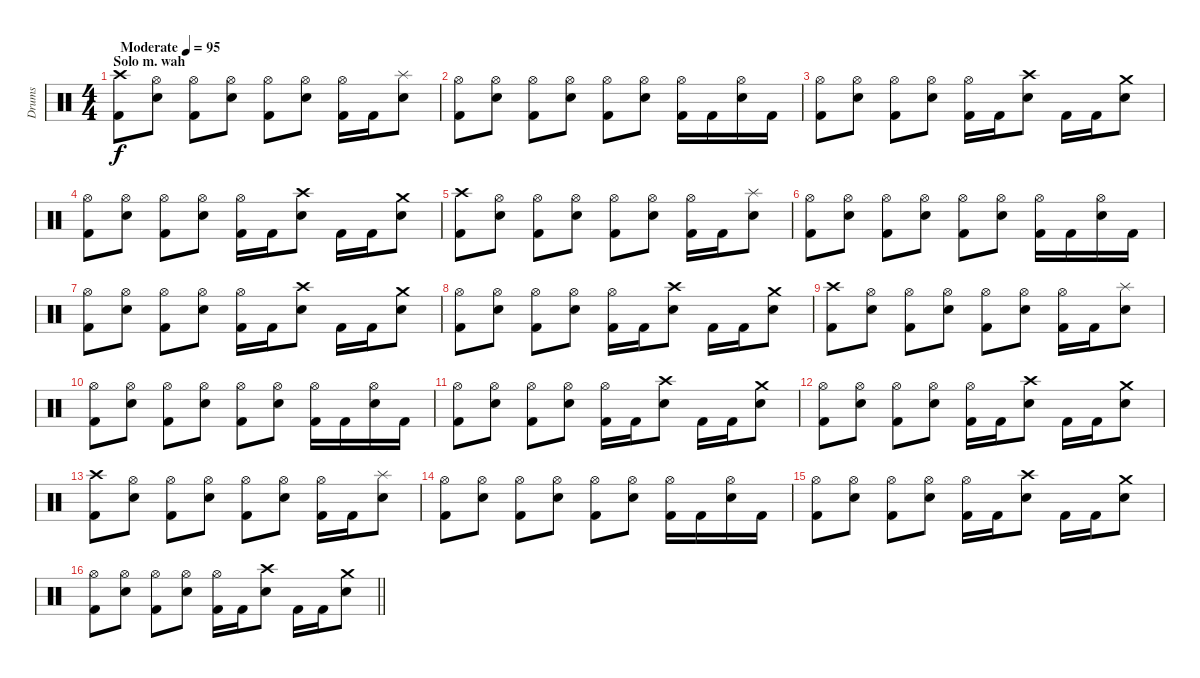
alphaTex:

\track ("Drums" "Drums") {instrument percussion}
\staff {score}
\articulation defaults
\ts (4 4)
\section ("" "Solo m. wah")
\tempo (95 "Moderate")
\clef neutral
\ks c
("Crash high (hit)" "Kick (hit) 2").8{dy f} ("Hi-Hat (open)" "Snare (hit) 2").8 ("Hi-Hat (open)" "Kick (hit) 2").8 ("Hi-Hat (open)" "Snare (hit) 2").8 ("Hi-Hat (open)" "Kick (hit) 2").8 ("Hi-Hat (open)" "Snare (hit) 2").8 ("Hi-Hat (open)" "Kick (hit) 2").16 "Kick (hit) 2".16 ("Splash (hit)" "Snare (hit) 2").8 |
("Hi-Hat (open)" "Kick (hit) 2").8 ("Hi-Hat (open)" "Snare (hit) 2").8 ("Hi-Hat (open)" "Kick (hit) 2").8 ("Hi-Hat (open)" "Snare (hit) 2").8 ("Hi-Hat (open)" "Kick (hit) 2").8 ("Hi-Hat (open)" "Snare (hit) 2").8 ("Hi-Hat (open)" "Kick (hit) 2").16 "Kick (hit) 2".16 ("Hi-Hat (open)" "Snare (hit) 2").16 "Kick (hit) 2".16 |
("Hi-Hat (open)" "Kick (hit) 2").8 ("Hi-Hat (open)" "Snare (hit) 2").8 ("Hi-Hat (open)" "Kick (hit) 2").8 ("Hi-Hat (open)" "Snare (hit) 2").8 ("Hi-Hat (open)" "Kick (hit) 2").16 "Kick (hit) 2".16 ("Crash high (hit)" "Snare (hit) 2").8 "Kick (hit) 2".16 "Kick (hit) 2".16 ("Crash medium (hit)" "Snare (hit) 2").8 |
("Hi-Hat (open)" "Kick (hit) 2").8 ("Hi-Hat (open)" "Snare (hit) 2").8 ("Hi-Hat (open)" "Kick (hit) 2").8 ("Hi-Hat (open)" "Snare (hit) 2").8 ("Hi-Hat (open)" "Kick (hit) 2").16 "Kick (hit) 2".16 ("Crash high (hit)" "Snare (hit) 2").8 "Kick (hit) 2".16 "Kick (hit) 2".16 ("Crash medium (hit)" "Snare (hit) 2").8 |
("Crash high (hit)" "Kick (hit) 2").8 ("Hi-Hat (open)" "Snare (hit) 2").8 ("Hi-Hat (open)" "Kick (hit) 2").8 ("Hi-Hat (open)" "Snare (hit) 2").8 ("Hi-Hat (open)" "Kick (hit) 2").8 ("Hi-Hat (open)" "Snare (hit) 2").8 ("Hi-Hat (open)" "Kick (hit) 2").16 "Kick (hit) 2".16 ("Splash (hit)" "Snare (hit) 2").8 |
("Hi-Hat (open)" "Kick (hit) 2").8 ("Hi-Hat (open)" "Snare (hit) 2").8 ("Hi-Hat (open)" "Kick (hit) 2").8 ("Hi-Hat (open)" "Snare (hit) 2").8 ("Hi-Hat (open)" "Kick (hit) 2").8 ("Hi-Hat (open)" "Snare (hit) 2").8 ("Hi-Hat (open)" "Kick (hit) 2").16 "Kick (hit) 2".16 ("Hi-Hat (open)" "Snare (hit) 2").16 "Kick (hit) 2".16 |
("Hi-Hat (open)" "Kick (hit) 2").8 ("Hi-Hat (open)" "Snare (hit) 2").8 ("Hi-Hat (open)" "Kick (hit) 2").8 ("Hi-Hat (open)" "Snare (hit) 2").8 ("Hi-Hat (open)" "Kick (hit) 2").16 "Kick (hit) 2".16 ("Crash high (hit)" "Snare (hit) 2").8 "Kick (hit) 2".16 "Kick (hit) 2".16 ("Crash medium (hit)" "Snare (hit) 2").8 |
("Hi-Hat (open)" "Kick (hit) 2").8 ("Hi-Hat (open)" "Snare (hit) 2").8 ("Hi-Hat (open)" "Kick (hit) 2").8 ("Hi-Hat (open)" "Snare (hit) 2").8 ("Hi-Hat (open)" "Kick (hit) 2").16 "Kick (hit) 2".16 ("Crash high (hit)" "Snare (hit) 2").8 "Kick (hit) 2".16 "Kick (hit) 2".16 ("Crash medium (hit)" "Snare (hit) 2").8 |
("Crash high (hit)" "Kick (hit) 2").8 ("Hi-Hat (open)" "Snare (hit) 2").8 ("Hi-Hat (open)" "Kick (hit) 2").8 ("Hi-Hat (open)" "Snare (hit) 2").8 ("Hi-Hat (open)" "Kick (hit) 2").8 ("Hi-Hat (open)" "Snare (hit) 2").8 ("Hi-Hat (open)" "Kick (hit) 2").16 "Kick (hit) 2".16 ("Splash (hit)" "Snare (hit) 2").8 |
("Hi-Hat (open)" "Kick (hit) 2").8 ("Hi-Hat (open)" "Snare (hit) 2").8 ("Hi-Hat (open)" "Kick (hit) 2").8 ("Hi-Hat (open)" "Snare (hit) 2").8 ("Hi-Hat (open)" "Kick (hit) 2").8 ("Hi-Hat (open)" "Snare (hit) 2").8 ("Hi-Hat (open)" "Kick (hit) 2").16 "Kick (hit) 2".16 ("Hi-Hat (open)" "Snare (hit) 2").16 "Kick (hit) 2".16 |
("Hi-Hat (open)" "Kick (hit) 2").8 ("Hi-Hat (open)" "Snare (hit) 2").8 ("Hi-Hat (open)" "Kick (hit) 2").8 ("Hi-Hat (open)" "Snare (hit) 2").8 ("Hi-Hat (open)" "Kick (hit) 2").16 "Kick (hit) 2".16 ("Crash high (hit)" "Snare (hit) 2").8 "Kick (hit) 2".16 "Kick (hit) 2".16 ("Crash medium (hit)" "Snare (hit) 2").8 |
("Hi-Hat (open)" "Kick (hit) 2").8 ("Hi-Hat (open)" "Snare (hit) 2").8 ("Hi-Hat (open)" "Kick (hit) 2").8 ("Hi-Hat (open)" "Snare (hit) 2").8 ("Hi-Hat (open)" "Kick (hit) 2").16 "Kick (hit) 2".16 ("Crash high (hit)" "Snare (hit) 2").8 "Kick (hit) 2".16 "Kick (hit) 2".16 ("Crash medium (hit)" "Snare (hit) 2").8 |
("Crash high (hit)" "Kick (hit) 2").8 ("Hi-Hat (open)" "Snare (hit) 2").8 ("Hi-Hat (open)" "Kick (hit) 2").8 ("Hi-Hat (open)" "Snare (hit) 2").8 ("Hi-Hat (open)" "Kick (hit) 2").8 ("Hi-Hat (open)" "Snare (hit) 2").8 ("Hi-Hat (open)" "Kick (hit) 2").16 "Kick (hit) 2".16 ("Splash (hit)" "Snare (hit) 2").8 |
("Hi-Hat (open)" "Kick (hit) 2").8 ("Hi-Hat (open)" "Snare (hit) 2").8 ("Hi-Hat (open)" "Kick (hit) 2").8 ("Hi-Hat (open)" "Snare (hit) 2").8 ("Hi-Hat (open)" "Kick (hit) 2").8 ("Hi-Hat (open)" "Snare (hit) 2").8 ("Hi-Hat (open)" "Kick (hit) 2").16 "Kick (hit) 2".16 ("Hi-Hat (open)" "Snare (hit) 2").16 "Kick (hit) 2".16 |
("Hi-Hat (open)" "Kick (hit) 2").8 ("Hi-Hat (open)" "Snare (hit) 2").8 ("Hi-Hat (open)" "Kick (hit) 2").8 ("Hi-Hat (open)" "Snare (hit) 2").8 ("Hi-Hat (open)" "Kick (hit) 2").16 "Kick (hit) 2".16 ("Crash high (hit)" "Snare (hit) 2").8 "Kick (hit) 2".16 "Kick (hit) 2".16 ("Crash medium (hit)" "Snare (hit) 2").8 |
\barLineRight lightlight
("Hi-Hat (open)" "Kick (hit) 2").8 ("Hi-Hat (open)" "Snare (hit) 2").8 ("Hi-Hat (open)" "Kick (hit) 2").8 ("Hi-Hat (open)" "Snare (hit) 2").8 ("Hi-Hat (open)" "Kick (hit) 2").16 "Kick (hit) 2".16 ("Crash high (hit)" "Snare (hit) 2").8 "Kick (hit) 2".16 "Kick (hit) 2".16 ("Crash medium (hit)" "Snare (hit) 2").8
